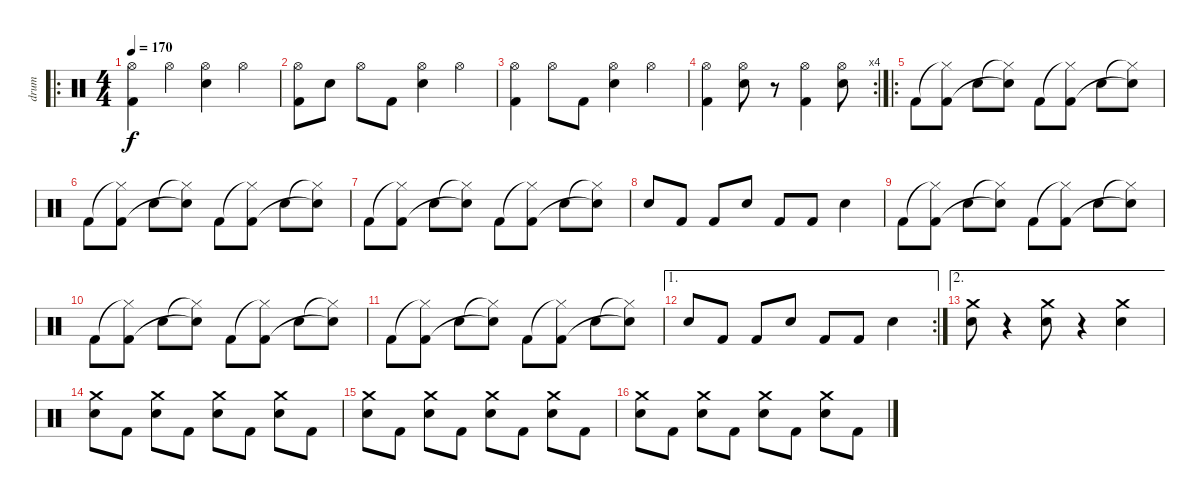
\track ("drum" "drum") {instrument percussion}
\staff {score}
\articulation defaults
\ro
\ts (4 4)
\tempo 170
\clef neutral
\ks c
("Kick (hit) 2" "Hi-Hat (open)").4{dy f} "Hi-Hat (open)".4 ("Hi-Hat (open)" "Snare (hit) 2").4 "Hi-Hat (open)".4 |
("Kick (hit) 2" "Hi-Hat (open)").8 "Snare (hit) 2".8 "Hi-Hat (open)".8 "Kick (hit) 2".8 ("Hi-Hat (open)" "Snare (hit) 2").4 "Hi-Hat (open)".4 |
("Kick (hit) 2" "Hi-Hat (open)").4 "Hi-Hat (open)".8 "Kick (hit) 2".8 ("Hi-Hat (open)" "Snare (hit) 2").4 "Hi-Hat (open)".4 |
\rc 4
("Kick (hit) 2" "Hi-Hat (open)").4 ("Hi-Hat (open)" "Snare (hit) 2").8 r.8 ("Kick (hit) 2" "Hi-Hat (open)").4 ("Hi-Hat (open)" "Snare (hit) 2").8 |
\ro "Kick (hit) 2".8
("Hi-Hat (closed)"{t} "Kick (hit) 2").8 "Snare (hit) 2".8 ("Hi-Hat (closed)"{t} "Snare (hit)"{t}).8 "Kick (hit) 2".8 ("Hi-Hat (closed)"{t} "Kick (hit) 2").8 "Snare (hit) 2".8 ("Hi-Hat (closed)"{t} "Snare (hit) 2"{t}).8 |
"Kick (hit) 2".8 ("Hi-Hat (closed)"{t} "Kick (hit) 2").8 "Snare (hit) 2".8 ("Hi-Hat (closed)"{t} "Snare (hit)"{t}).8 "Kick (hit) 2".8 ("Hi-Hat (closed)"{t} "Kick (hit) 2").8 "Snare (hit) 2".8 ("Hi-Hat (closed)"{t} "Snare (hit) 2"{t}).8 |
"Kick (hit) 2".8 ("Hi-Hat (closed)"{t} "Kick (hit) 2").8 "Snare (hit) 2".8 ("Hi-Hat (closed)"{t} "Snare (hit)"{t}).8 "Kick (hit) 2".8 ("Hi-Hat (closed)"{t} "Kick (hit) 2").8 "Snare (hit) 2".8 ("Hi-Hat (closed)"{t} "Snare (hit)"{t}).8 |
"Snare (hit) 2".8 "Kick (hit) 2".8 "Kick (hit) 2".8 "Snare (hit) 2".8 "Kick (hit) 2".8 "Kick (hit) 2".8 "Snare (hit) 2".4 |
"Kick (hit) 2".8 ("Hi-Hat (closed)"{t} "Kick (hit) 2").8 "Snare (hit) 2".8 ("Hi-Hat (closed)"{t} "Snare (hit)"{t}).8 "Kick (hit) 2".8 ("Hi-Hat (closed)"{t} "Kick (hit) 2").8 "Snare (hit) 2".8 ("Hi-Hat (closed)"{t} "Snare (hit) 2"{t}).8 |
"Kick (hit) 2".8 ("Hi-Hat (closed)"{t} "Kick (hit) 2").8 "Snare (hit) 2".8 ("Hi-Hat (closed)"{t} "Snare (hit)"{t}).8 "Kick (hit) 2".8 ("Hi-Hat (closed)"{t} "Kick (hit) 2").8 "Snare (hit) 2".8 ("Hi-Hat (closed)"{t} "Snare (hit) 2"{t}).8 |
"Kick (hit) 2".8 ("Hi-Hat (closed)"{t} "Kick (hit) 2").8 "Snare (hit) 2".8 ("Hi-Hat (closed)"{t} "Snare (hit)"{t}).8 "Kick (hit) 2".8 ("Hi-Hat (closed)"{t} "Kick (hit) 2").8 "Snare (hit) 2".8 ("Hi-Hat (closed)"{t} "Snare (hit)"{t}).8 |
\ae 1
\rc 2 "Snare (hit) 2".8 "Kick (hit) 2".8 "Kick (hit) 2".8 "Snare (hit) 2".8 "Kick (hit) 2".8 "Kick (hit) 2".8 "Snare (hit) 2".4
|
\ae 2
("Crash medium (hit)" "Snare (hit) 2").8 r.4 ("Crash medium (hit)" "Snare (hit) 2").8 r.4 ("Crash medium (hit)" "Snare (hit) 2").4 |
("Crash medium (hit)" "Snare (hit) 2").8 "Kick (hit) 2".8 ("Crash medium (hit)" "Snare (hit) 2").8 "Kick (hit) 2".8 ("Crash medium (hit)" "Snare (hit) 2").8 "Kick (hit) 2".8 ("Crash medium (hit)" "Snare (hit) 2").8 "Kick (hit) 2".8 |
("Crash medium (hit)" "Snare (hit) 2").8 "Kick (hit) 2".8 ("Crash medium (hit)" "Snare (hit) 2").8 "Kick (hit) 2".8 ("Crash medium (hit)" "Snare (hit) 2").8 "Kick (hit) 2".8 ("Crash medium (hit)" "Snare (hit) 2").8 "Kick (hit) 2".8 |
("Crash medium (hit)" "Snare (hit) 2").8 "Kick (hit) 2".8 ("Crash medium (hit)" "Snare (hit) 2").8 "Kick (hit) 2".8 ("Crash medium (hit)" "Snare (hit) 2").8 "Kick (hit) 2".8 ("Crash medium (hit)" "Snare (hit) 2").8 "Kick (hit) 2".8
